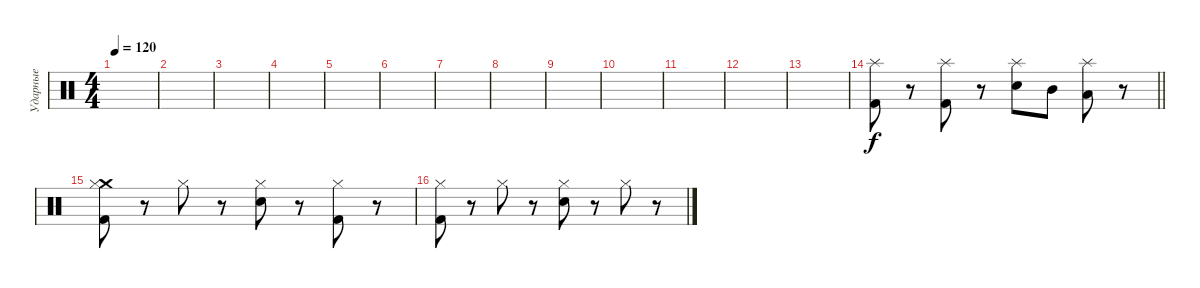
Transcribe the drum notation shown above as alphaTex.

\track ("Ударные" "Ударные") {instrument percussion}
\staff {score}
\articulation defaults
\ts (4 4)
\tempo 120
\clef neutral
\ks c
|
|
|
|
|
|
|
|
|
|
|
|
|
\barLineRight lightlight
("Splash (hit)" "Kick (hit) 2").8 r.8 ("Splash (hit)" "Kick (hit) 2").8 r.8 ("Snare (hit) 2" "Splash (hit)").8 "Mid Tom (hit)".8 ("Low Tom (hit)" "Splash (hit)").8 r.8 |
("Crash medium (hit)" "Hi-Hat (closed)" "Kick (hit) 2").8 r.8 "Hi-Hat (closed)".8 r.8 ("Snare (hit) 2" "Hi-Hat (closed)").8 r.8 ("Hi-Hat (closed)" "Kick (hit) 2").8 r.8 |
("Hi-Hat (closed)" "Kick (hit) 2").8 r.8 "Hi-Hat (closed)".8 r.8 ("Snare (hit) 2" "Hi-Hat (closed)").8 r.8 "Hi-Hat (closed)".8 r.8
